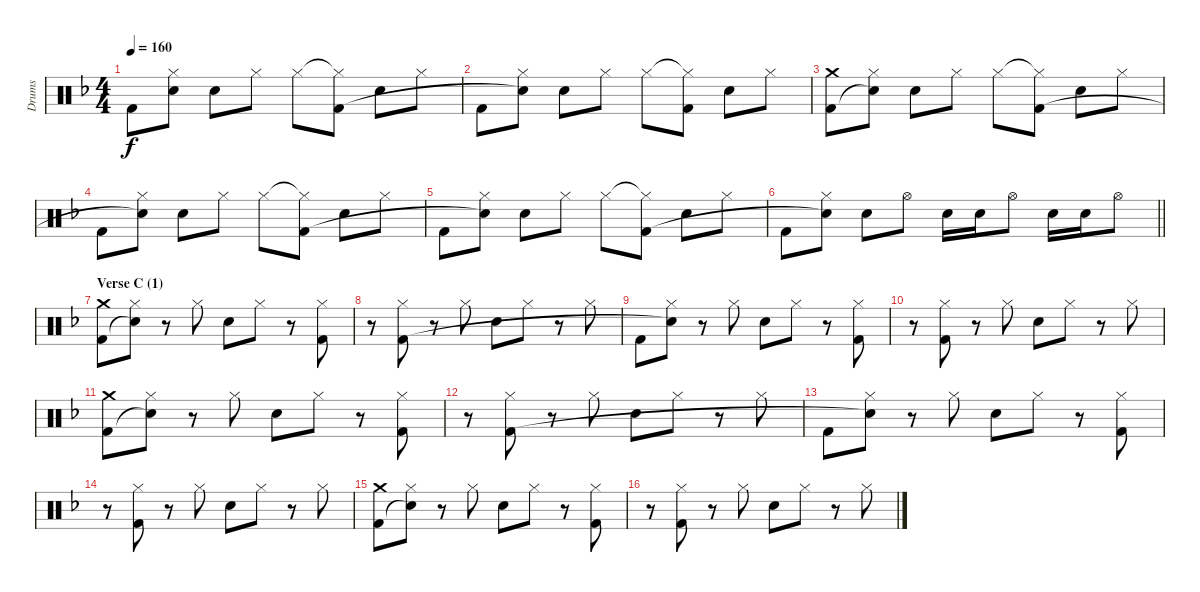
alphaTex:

\track ("Drums" "Drums") {instrument percussion}
\staff {score}
\articulation defaults
\ts (4 4)
\tempo 160
\clef neutral
\ks f "Kick (hit) 2".8{dy f}
("Hi-Hat (closed)" "Snare (hit)"{t}).8 "Electric Snare (hit)".8 "Hi-Hat (closed)".8 "Hi-Hat (closed)".8 ("Hi-Hat (closed)"{t} "Kick (hit) 2").8 "Electric Snare (hit)".8 "Hi-Hat (closed)".8 |
"Kick (hit) 2".8 ("Hi-Hat (closed)" "Snare (hit)"{t}).8 "Electric Snare (hit)".8 "Hi-Hat (closed)".8 "Hi-Hat (closed)".8 ("Hi-Hat (closed)"{t} "Kick (hit) 2").8 "Electric Snare (hit)".8 "Hi-Hat (closed)".8 |
("Crash medium (hit)" "Kick (hit) 2").8 ("Hi-Hat (closed)" "Snare (hit)"{t}).8 "Electric Snare (hit)".8 "Hi-Hat (closed)".8 "Hi-Hat (closed)".8 ("Hi-Hat (closed)"{t} "Kick (hit) 2").8 "Electric Snare (hit)".8 "Hi-Hat (closed)".8 |
"Kick (hit) 2".8 ("Hi-Hat (closed)" "Snare (hit)"{t}).8 "Electric Snare (hit)".8 "Hi-Hat (closed)".8 "Hi-Hat (closed)".8 ("Hi-Hat (closed)"{t} "Kick (hit) 2").8 "Electric Snare (hit)".8 "Hi-Hat (closed)".8 |
"Kick (hit) 2".8 ("Hi-Hat (closed)" "Snare (hit)"{t}).8 "Electric Snare (hit)".8 "Hi-Hat (closed)".8 "Hi-Hat (closed)".8 ("Hi-Hat (closed)"{t} "Kick (hit) 2").8 "Electric Snare (hit)".8 "Hi-Hat (closed)".8 |
\barLineRight lightlight "Kick (hit) 2".8
("Hi-Hat (closed)" "Snare (hit)"{t}).8 "Electric Snare (hit)".8 "Hi-Hat (open)".8 "Electric Snare (hit)".16 "Electric Snare (hit)".16 "Hi-Hat (open)".8 "Electric Snare (hit)".16 "Electric Snare (hit)".16 "Hi-Hat (open)".8 |
\section ("" "Verse C (1)")
("Crash medium (hit)" "Kick (hit) 2").8 ("Hi-Hat (closed)" "Snare (hit)"{t}).8 r.8 "Hi-Hat (closed)".8 "Electric Snare (hit)".8 "Hi-Hat (closed)".8 r.8 ("Hi-Hat (closed)" "Kick (hit) 2").8 |
r.8 ("Hi-Hat (closed)" "Kick (hit) 2").8 r.8 "Hi-Hat (closed)".8 "Electric Snare (hit)".8 "Hi-Hat (closed)".8 r.8 "Hi-Hat (closed)".8 |
"Kick (hit) 2".8 ("Hi-Hat (closed)" "Snare (hit)"{t}).8 r.8 "Hi-Hat (closed)".8 "Electric Snare (hit)".8 "Hi-Hat (closed)".8 r.8 ("Hi-Hat (closed)" "Kick (hit) 2").8 |
r.8 ("Hi-Hat (closed)" "Kick (hit) 2").8 r.8 "Hi-Hat (closed)".8 "Electric Snare (hit)".8 "Hi-Hat (closed)".8 r.8 "Hi-Hat (closed)".8 |
("Crash medium (hit)" "Kick (hit) 2").8 ("Hi-Hat (closed)" "Snare (hit)"{t}).8 r.8 "Hi-Hat (closed)".8 "Electric Snare (hit)".8 "Hi-Hat (closed)".8 r.8 ("Hi-Hat (closed)" "Kick (hit) 2").8 |
r.8 ("Hi-Hat (closed)" "Kick (hit) 2").8 r.8 "Hi-Hat (closed)".8 "Electric Snare (hit)".8 "Hi-Hat (closed)".8 r.8 "Hi-Hat (closed)".8 |
"Kick (hit) 2".8 ("Hi-Hat (closed)" "Snare (hit)"{t}).8 r.8 "Hi-Hat (closed)".8 "Electric Snare (hit)".8 "Hi-Hat (closed)".8 r.8 ("Hi-Hat (closed)" "Kick (hit) 2").8 |
r.8 ("Hi-Hat (closed)" "Kick (hit) 2").8 r.8 "Hi-Hat (closed)".8 "Electric Snare (hit)".8 "Hi-Hat (closed)".8 r.8 "Hi-Hat (closed)".8 |
("Crash medium (hit)" "Kick (hit) 2").8 ("Hi-Hat (closed)" "Snare (hit)"{t}).8 r.8 "Hi-Hat (closed)".8 "Electric Snare (hit)".8 "Hi-Hat (closed)".8 r.8 ("Hi-Hat (closed)" "Kick (hit) 2").8 |
r.8 ("Hi-Hat (closed)" "Kick (hit) 2").8 r.8 "Hi-Hat (closed)".8 "Electric Snare (hit)".8 "Hi-Hat (closed)".8 r.8 "Hi-Hat (closed)".8
